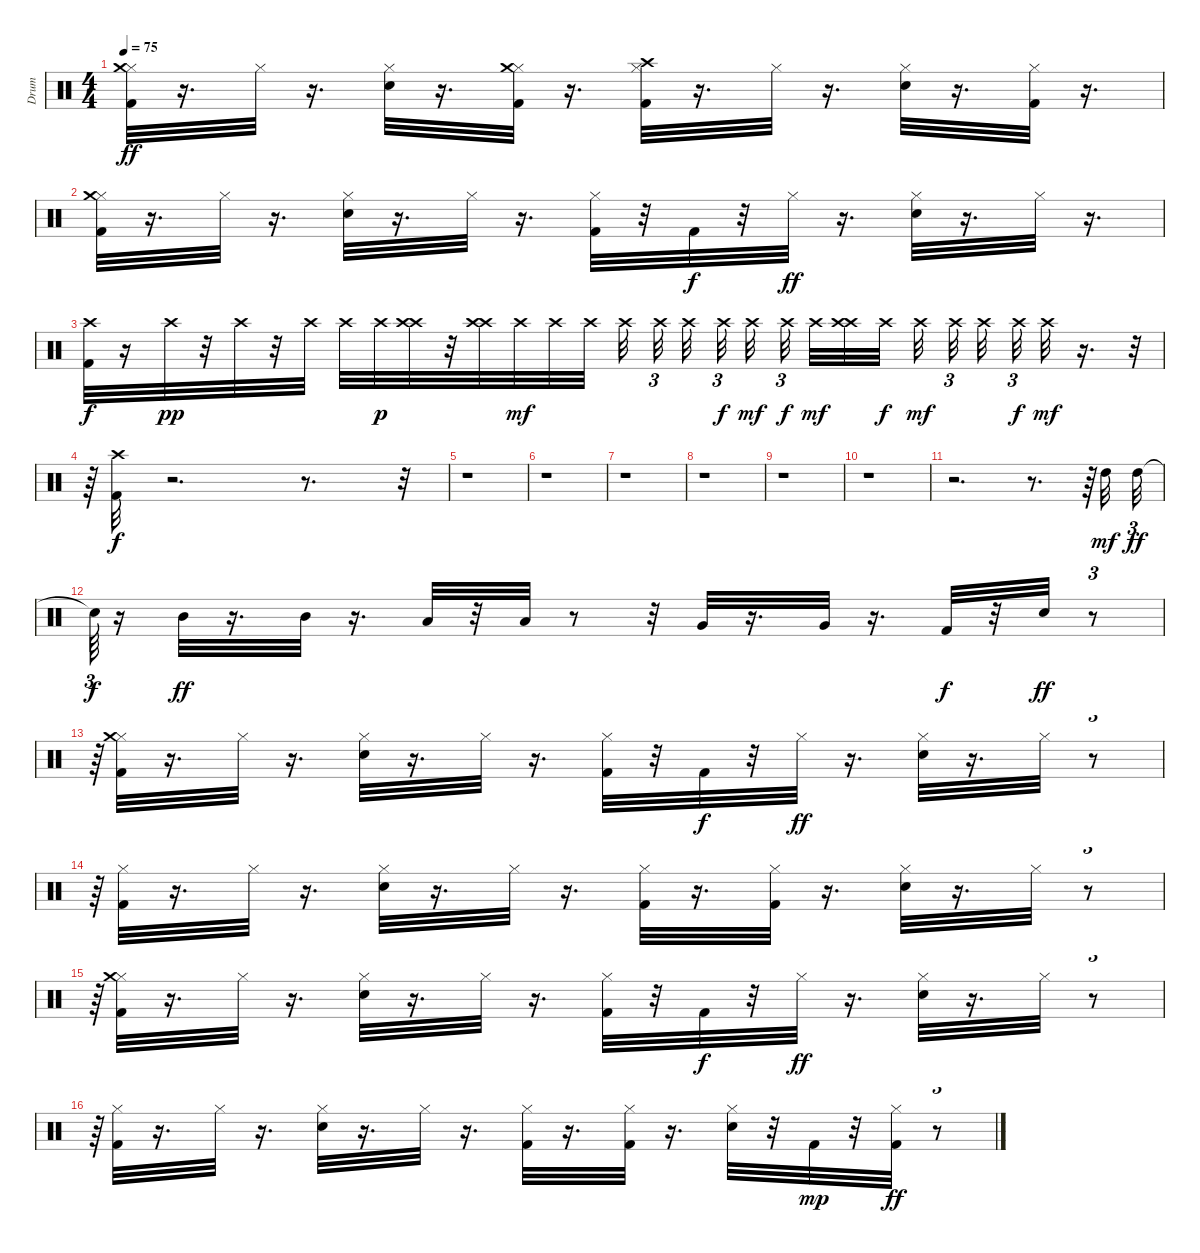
\track ("Drum" "Drum") {instrument percussion}
\staff {score}
\articulation defaults
\ts (4 4)
\tempo 75
\clef neutral
\ks c
("Kick (hit) 2" "Hi-Hat (closed)" "Crash medium (hit)").32{dy ff} r.16{d} "Hi-Hat (closed)".32 r.16{d} ("Hi-Hat (closed)" "Snare (hit) 2").32 r.16{d} ("Kick (hit) 2" "Hi-Hat (closed)" "Crash medium (hit)").32 r.16{d} ("Kick (hit) 2" "Hi-Hat (closed)" "Crash high (hit)").32 r.16{d} "Hi-Hat (closed)".32 r.16{d} ("Hi-Hat (closed)" "Snare (hit) 2").32 r.16{d} ("Kick (hit) 2" "Hi-Hat (closed)").32 r.16{d} |
("Kick (hit) 2" "Hi-Hat (closed)" "Crash medium (hit)").32 r.16{d} "Hi-Hat (closed)".32 r.16{d} ("Hi-Hat (closed)" "Snare (hit) 2").32 r.16{d} "Hi-Hat (closed)".32 r.16{d} ("Kick (hit) 2" "Hi-Hat (closed)").32 r.32 "Kick (hit) 2".32{dy f} r.32 "Hi-Hat (closed)".32{dy ff} r.16{d} ("Hi-Hat (closed)" "Snare (hit) 2").32 r.16{d} "Hi-Hat (closed)".32 r.16{d} |
("Kick (hit) 2" "Crash high (hit)").32{dy f} r.16 "Crash high (hit)".32{dy pp} r.32 "Crash high (hit)".32 r.32 "Crash high (hit)".32 "Crash high (hit)".32 "Crash high (hit)".32{dy p} ("Crash high (hit)" "Crash high (hit)").32 r.32 ("Crash high (hit)" "Crash high (hit)").32 "Crash high (hit)".32{dy mf} "Crash high (hit)".32 "Crash high (hit)".32 "Crash high (hit)".32{beam splitsecondary} "Crash high (hit)".32{tu (3 2) beam splitsecondary} "Crash high (hit)".32{beam splitsecondary} "Crash high (hit)".32{tu (3 2) dy f beam splitsecondary} "Crash high (hit)".32{dy mf beam splitsecondary} "Crash high (hit)".32{tu (3 2) dy f beam splitsecondary} "Crash high (hit)".32{dy mf} ("Crash high (hit)" "Crash high (hit)").32 "Crash high (hit)".32{dy f} "Crash high (hit)".32{dy mf beam splitsecondary} "Crash high (hit)".32{tu (3 2) beam splitsecondary} "Crash high (hit)".32{beam splitsecondary} "Crash high (hit)".32{tu (3 2) dy f} "Crash high (hit)".32{dy mf} r.16{d} r.32{tu (3 2)} |
r.64{tu (3 2)} ("Kick (hit) 2" "Crash high (hit)").32{dy f} r.2{d} r.8{d} r.32{tu (3 2)} |
r.1 |
r.1 |
r.1 |
r.1 |
r.1 |
r.1 |
r.2{d} r.8{d} r.64{tu (3 2)} "High Tom (hit)".32{dy mf} "High Tom (hit)".32{tu (3 2) dy ff} |
"Snare (hit)"{t}.64{tu (3 2) dy f} r.16 "Mid Tom (hit)".32{dy ff} r.16{d} "Mid Tom (hit)".32 r.16{d} "Low Tom (hit)".32 r.32 "Low Tom (hit)".32 r.8 r.32 "Very Low Tom (hit)".32 r.16{d} "Very Low Tom (hit)".32 r.16{d} "Kick (hit) 2".32{dy f} r.32 "Snare (hit) 2".32{dy ff} r.8{tu (3 2)} |
r.64{tu (3 2)} ("Kick (hit) 2" "Hi-Hat (closed)" "Crash medium (hit)").32 r.16{d} "Hi-Hat (closed)".32 r.16{d} ("Hi-Hat (closed)" "Snare (hit) 2").32 r.16{d} "Hi-Hat (closed)".32 r.16{d} ("Kick (hit) 2" "Hi-Hat (closed)").32 r.32 "Kick (hit) 2".32{dy f} r.32 "Hi-Hat (closed)".32{dy ff} r.16{d} ("Hi-Hat (closed)" "Snare (hit) 2").32 r.16{d} "Hi-Hat (closed)".32 r.8{tu (3 2)} |
r.64{tu (3 2)} ("Kick (hit) 2" "Hi-Hat (closed)").32 r.16{d} "Hi-Hat (closed)".32 r.16{d} ("Hi-Hat (closed)" "Snare (hit) 2").32 r.16{d} "Hi-Hat (closed)".32 r.16{d} ("Kick (hit) 2" "Hi-Hat (closed)").32 r.16{d} ("Kick (hit) 2" "Hi-Hat (closed)").32 r.16{d} ("Hi-Hat (closed)" "Snare (hit) 2").32 r.16{d} "Hi-Hat (closed)".32 r.8{tu (3 2)} |
r.64{tu (3 2)} ("Kick (hit) 2" "Hi-Hat (closed)" "Crash medium (hit)").32 r.16{d} "Hi-Hat (closed)".32 r.16{d} ("Hi-Hat (closed)" "Snare (hit) 2").32 r.16{d} "Hi-Hat (closed)".32 r.16{d} ("Kick (hit) 2" "Hi-Hat (closed)").32 r.32 "Kick (hit) 2".32{dy f} r.32 "Hi-Hat (closed)".32{dy ff} r.16{d} ("Hi-Hat (closed)" "Snare (hit) 2").32 r.16{d} "Hi-Hat (closed)".32 r.8{tu (3 2)} |
r.64{tu (3 2)} ("Kick (hit) 2" "Hi-Hat (closed)").32 r.16{d} "Hi-Hat (closed)".32 r.16{d} ("Hi-Hat (closed)" "Snare (hit) 2").32 r.16{d} "Hi-Hat (closed)".32 r.16{d} ("Kick (hit) 2" "Hi-Hat (closed)").32 r.16{d} ("Kick (hit) 2" "Hi-Hat (closed)").32 r.16{d} ("Hi-Hat (closed)" "Snare (hit) 2").32 r.32 "Kick (hit) 2".32{dy mp} r.32 ("Kick (hit) 2" "Hi-Hat (closed)").32{dy ff} r.8{tu (3 2)}
